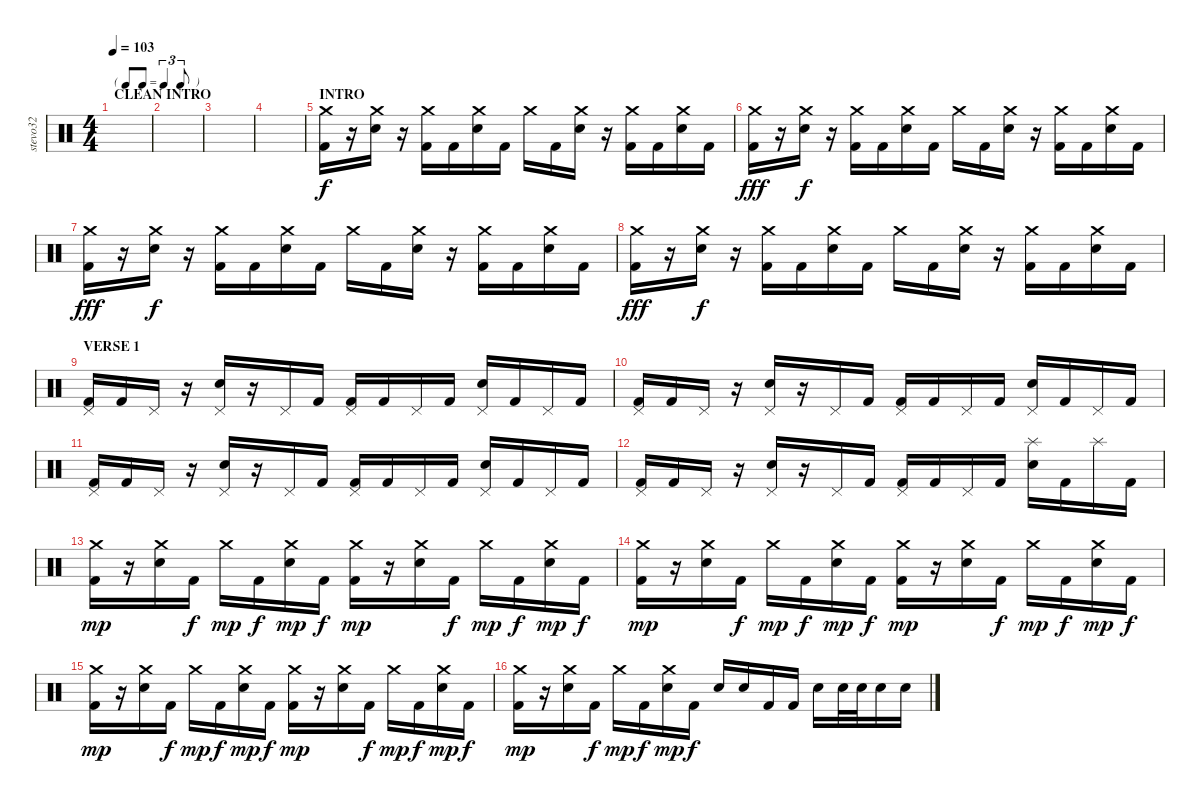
\track ("stevo32" "stevo32") {instrument percussion}
\staff {score}
\articulation defaults
\ts (4 4)
\tf triplet8th
\section ("" "CLEAN INTRO")
\tempo 103
\clef neutral
\ks c
|
|
|
|
\section ("" "INTRO")
("Crash medium (hit)" "Kick (hit) 2").16 r.16 ("Crash medium (hit)" "Electric Snare (hit)").16{dy f} r.16 ("Crash medium (hit)" "Kick (hit) 2").16 "Kick (hit) 2".16 ("Crash medium (hit)" "Electric Snare (hit)").16 "Kick (hit) 2".16 "Crash medium (hit)".16 "Kick (hit) 2".16 ("Crash medium (hit)" "Electric Snare (hit)").16 r.16 ("Crash medium (hit)" "Kick (hit) 2").16 "Kick (hit) 2".16 ("Crash medium (hit)" "Electric Snare (hit)").16 "Kick (hit) 2".16 |
("Crash medium (hit)" "Kick (hit) 2").16{dy fff} r.16 ("Crash medium (hit)" "Electric Snare (hit)").16{dy f} r.16 ("Crash medium (hit)" "Kick (hit) 2").16 "Kick (hit) 2".16 ("Crash medium (hit)" "Electric Snare (hit)").16 "Kick (hit) 2".16 "Crash medium (hit)".16 "Kick (hit) 2".16 ("Crash medium (hit)" "Electric Snare (hit)").16 r.16 ("Crash medium (hit)" "Kick (hit) 2").16 "Kick (hit) 2".16 ("Crash medium (hit)" "Electric Snare (hit)").16 "Kick (hit) 2".16 |
("Crash medium (hit)" "Kick (hit) 2").16{dy fff} r.16 ("Crash medium (hit)" "Electric Snare (hit)").16{dy f} r.16 ("Crash medium (hit)" "Kick (hit) 2").16 "Kick (hit) 2".16 ("Crash medium (hit)" "Electric Snare (hit)").16 "Kick (hit) 2".16 "Crash medium (hit)".16 "Kick (hit) 2".16 ("Crash medium (hit)" "Electric Snare (hit)").16 r.16 ("Crash medium (hit)" "Kick (hit) 2").16 "Kick (hit) 2".16 ("Crash medium (hit)" "Electric Snare (hit)").16 "Kick (hit) 2".16 |
("Crash medium (hit)" "Kick (hit) 2").16{dy fff} r.16 ("Crash medium (hit)" "Electric Snare (hit)").16{dy f} r.16 ("Crash medium (hit)" "Kick (hit) 2").16 "Kick (hit) 2".16 ("Crash medium (hit)" "Electric Snare (hit)").16 "Kick (hit) 2".16 "Crash medium (hit)".16 "Kick (hit) 2".16 ("Crash medium (hit)" "Electric Snare (hit)").16 r.16 ("Crash medium (hit)" "Kick (hit) 2").16 "Kick (hit) 2".16 ("Crash medium (hit)" "Electric Snare (hit)").16 "Kick (hit) 2".16 |
\section ("" "VERSE 1")
("Pedal Hi-Hat (hit)" "Kick (hit) 2").16 "Kick (hit) 2".16 "Pedal Hi-Hat (hit)".16 r.16 ("Pedal Hi-Hat (hit)" "Electric Snare (hit)").16 r.16 "Pedal Hi-Hat (hit)".16 "Kick (hit) 2".16 ("Pedal Hi-Hat (hit)" "Kick (hit) 2").16 "Kick (hit) 2".16 "Pedal Hi-Hat (hit)".16 "Kick (hit) 2".16 ("Pedal Hi-Hat (hit)" "Electric Snare (hit)").16 "Kick (hit) 2".16 "Pedal Hi-Hat (hit)".16 "Kick (hit) 2".16 |
("Pedal Hi-Hat (hit)" "Kick (hit) 2").16 "Kick (hit) 2".16 "Pedal Hi-Hat (hit)".16 r.16 ("Pedal Hi-Hat (hit)" "Electric Snare (hit)").16 r.16 "Pedal Hi-Hat (hit)".16 "Kick (hit) 2".16 ("Pedal Hi-Hat (hit)" "Kick (hit) 2").16 "Kick (hit) 2".16 "Pedal Hi-Hat (hit)".16 "Kick (hit) 2".16 ("Pedal Hi-Hat (hit)" "Electric Snare (hit)").16 "Kick (hit) 2".16 "Pedal Hi-Hat (hit)".16 "Kick (hit) 2".16 |
("Pedal Hi-Hat (hit)" "Kick (hit) 2").16 "Kick (hit) 2".16 "Pedal Hi-Hat (hit)".16 r.16 ("Pedal Hi-Hat (hit)" "Electric Snare (hit)").16 r.16 "Pedal Hi-Hat (hit)".16 "Kick (hit) 2".16 ("Pedal Hi-Hat (hit)" "Kick (hit) 2").16 "Kick (hit) 2".16 "Pedal Hi-Hat (hit)".16 "Kick (hit) 2".16 ("Pedal Hi-Hat (hit)" "Electric Snare (hit)").16 "Kick (hit) 2".16 "Pedal Hi-Hat (hit)".16 "Kick (hit) 2".16 |
("Pedal Hi-Hat (hit)" "Kick (hit) 2").16 "Kick (hit) 2".16 "Pedal Hi-Hat (hit)".16 r.16 ("Pedal Hi-Hat (hit)" "Electric Snare (hit)").16 r.16 "Pedal Hi-Hat (hit)".16 "Kick (hit) 2".16 ("Pedal Hi-Hat (hit)" "Kick (hit) 2").16 "Kick (hit) 2".16 "Pedal Hi-Hat (hit)".16 "Kick (hit) 2".16 ("Splash (hit)" "Electric Snare (hit)").16 "Kick (hit) 2".16 "Splash (hit)".16 "Kick (hit) 2".16 |
("Crash medium (hit)" "Kick (hit) 2").16{dy mp} r.16 ("Crash medium (hit)" "Electric Snare (hit)").16 "Kick (hit) 2".16{dy f} "Crash medium (hit)".16{dy mp} "Kick (hit) 2".16{dy f} ("Crash medium (hit)" "Electric Snare (hit)").16{dy mp} "Kick (hit) 2".16{dy f} ("Crash medium (hit)" "Kick (hit) 2").16{dy mp} r.16 ("Crash medium (hit)" "Electric Snare (hit)").16 "Kick (hit) 2".16{dy f} "Crash medium (hit)".16{dy mp} "Kick (hit) 2".16{dy f} ("Crash medium (hit)" "Electric Snare (hit)").16{dy mp} "Kick (hit) 2".16{dy f} |
("Crash medium (hit)" "Kick (hit) 2").16{dy mp} r.16 ("Crash medium (hit)" "Electric Snare (hit)").16 "Kick (hit) 2".16{dy f} "Crash medium (hit)".16{dy mp} "Kick (hit) 2".16{dy f} ("Crash medium (hit)" "Electric Snare (hit)").16{dy mp} "Kick (hit) 2".16{dy f} ("Crash medium (hit)" "Kick (hit) 2").16{dy mp} r.16 ("Crash medium (hit)" "Electric Snare (hit)").16 "Kick (hit) 2".16{dy f} "Crash medium (hit)".16{dy mp} "Kick (hit) 2".16{dy f} ("Crash medium (hit)" "Electric Snare (hit)").16{dy mp} "Kick (hit) 2".16{dy f} |
("Crash medium (hit)" "Kick (hit) 2").16{dy mp} r.16 ("Crash medium (hit)" "Electric Snare (hit)").16 "Kick (hit) 2".16{dy f} "Crash medium (hit)".16{dy mp} "Kick (hit) 2".16{dy f} ("Crash medium (hit)" "Electric Snare (hit)").16{dy mp} "Kick (hit) 2".16{dy f} ("Crash medium (hit)" "Kick (hit) 2").16{dy mp} r.16 ("Crash medium (hit)" "Electric Snare (hit)").16 "Kick (hit) 2".16{dy f} "Crash medium (hit)".16{dy mp} "Kick (hit) 2".16{dy f} ("Crash medium (hit)" "Electric Snare (hit)").16{dy mp} "Kick (hit) 2".16{dy f} |
("Crash medium (hit)" "Kick (hit) 2").16{dy mp} r.16 ("Crash medium (hit)" "Electric Snare (hit)").16 "Kick (hit) 2".16{dy f} "Crash medium (hit)".16{dy mp} "Kick (hit) 2".16{dy f} ("Crash medium (hit)" "Electric Snare (hit)").16{dy mp} "Kick (hit) 2".16{dy f} "Electric Snare (hit)".16 "Electric Snare (hit)".16 "Kick (hit) 2".16 "Kick (hit) 2".16 "Electric Snare (hit)".16 "Electric Snare (hit)".32 "Electric Snare (hit)".32 "Electric Snare (hit)".16 "Electric Snare (hit)".16
